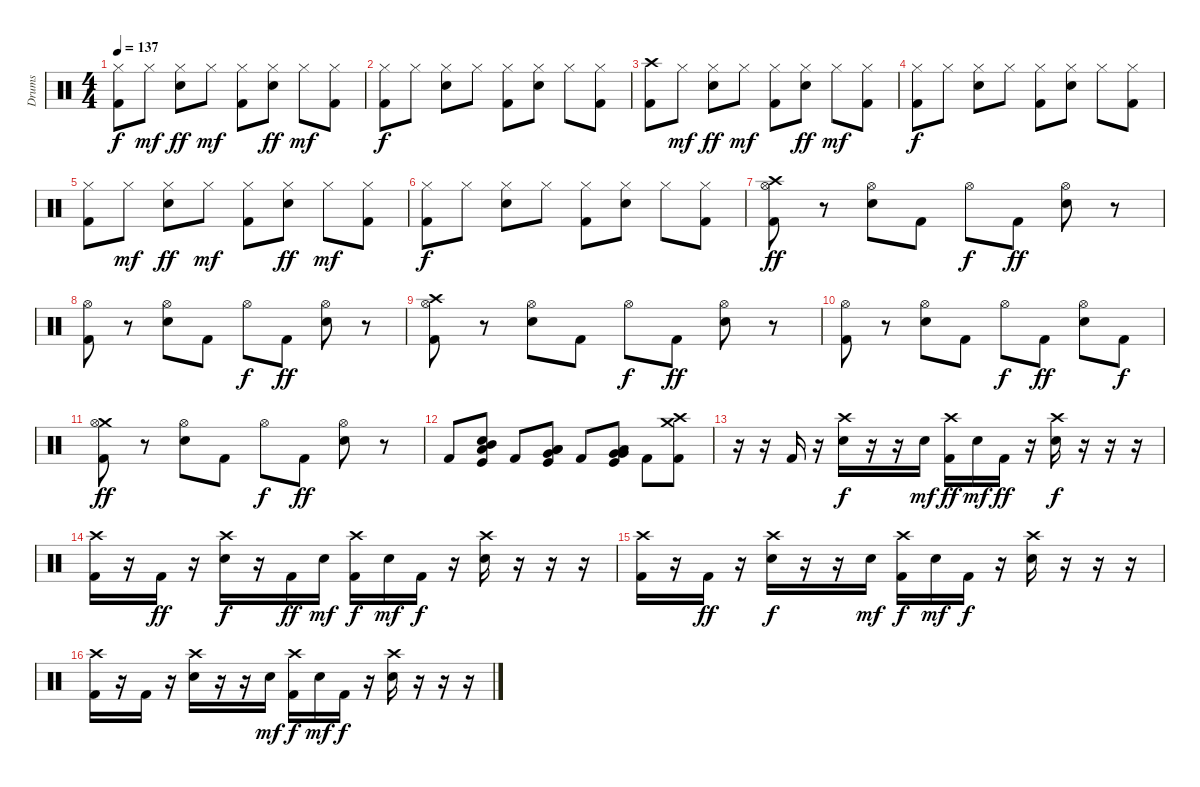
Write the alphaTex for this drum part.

\track ("Drums" "Drums") {instrument percussion}
\staff {score}
\articulation defaults
\ts (4 4)
\tempo 137
\clef neutral
\ks c
("Hi-Hat (closed)" "Kick (hit) 2").8{dy f} "Hi-Hat (closed)".8{dy mf} ("Hi-Hat (closed)" "Electric Snare (hit)").8{dy ff} "Hi-Hat (closed)".8{dy mf} ("Hi-Hat (closed)" "Kick (hit) 2").8 ("Hi-Hat (closed)" "Electric Snare (hit)").8{dy ff} "Hi-Hat (closed)".8{dy mf} ("Hi-Hat (closed)" "Kick (hit) 2").8 |
("Hi-Hat (closed)" "Kick (hit) 2").8{dy f} "Hi-Hat (closed)".8 ("Hi-Hat (closed)" "Electric Snare (hit)").8 "Hi-Hat (closed)".8 ("Hi-Hat (closed)" "Kick (hit) 2").8 ("Hi-Hat (closed)" "Electric Snare (hit)").8 "Hi-Hat (closed)".8 ("Hi-Hat (closed)" "Kick (hit) 2").8 |
("Crash high (hit)" "Kick (hit) 2").8 "Hi-Hat (closed)".8{dy mf} ("Hi-Hat (closed)" "Electric Snare (hit)").8{dy ff} "Hi-Hat (closed)".8{dy mf} ("Hi-Hat (closed)" "Kick (hit) 2").8 ("Hi-Hat (closed)" "Electric Snare (hit)").8{dy ff} "Hi-Hat (closed)".8{dy mf} ("Hi-Hat (closed)" "Kick (hit) 2").8 |
("Hi-Hat (closed)" "Kick (hit) 2").8{dy f} "Hi-Hat (closed)".8 ("Hi-Hat (closed)" "Electric Snare (hit)").8 "Hi-Hat (closed)".8 ("Hi-Hat (closed)" "Kick (hit) 2").8 ("Hi-Hat (closed)" "Electric Snare (hit)").8 "Hi-Hat (closed)".8 ("Hi-Hat (closed)" "Kick (hit) 2").8 |
("Hi-Hat (closed)" "Kick (hit) 2").8 "Hi-Hat (closed)".8{dy mf} ("Hi-Hat (closed)" "Electric Snare (hit)").8{dy ff} "Hi-Hat (closed)".8{dy mf} ("Hi-Hat (closed)" "Kick (hit) 2").8 ("Hi-Hat (closed)" "Electric Snare (hit)").8{dy ff} "Hi-Hat (closed)".8{dy mf} ("Hi-Hat (closed)" "Kick (hit) 2").8 |
("Hi-Hat (closed)" "Kick (hit) 2").8{dy f} "Hi-Hat (closed)".8 ("Hi-Hat (closed)" "Electric Snare (hit)").8 "Hi-Hat (closed)".8 ("Hi-Hat (closed)" "Kick (hit) 2").8 ("Hi-Hat (closed)" "Electric Snare (hit)").8 "Hi-Hat (closed)".8 ("Hi-Hat (closed)" "Kick (hit) 2").8 |
("Crash high (hit)" "Hi-Hat (open)" "Kick (hit) 2").8{dy ff} r.8 ("Hi-Hat (open)" "Electric Snare (hit)").8 "Kick (hit) 2".8 "Hi-Hat (open)".8{dy f} "Kick (hit) 2".8{dy ff} ("Hi-Hat (open)" "Electric Snare (hit)").8 r.8 |
("Hi-Hat (open)" "Kick (hit) 2").8 r.8 ("Hi-Hat (open)" "Electric Snare (hit)").8 "Kick (hit) 2".8 "Hi-Hat (open)".8{dy f} "Kick (hit) 2".8{dy ff} ("Hi-Hat (open)" "Electric Snare (hit)").8 r.8 |
("Crash high (hit)" "Hi-Hat (open)" "Kick (hit) 2").8 r.8 ("Hi-Hat (open)" "Electric Snare (hit)").8 "Kick (hit) 2".8 "Hi-Hat (open)".8{dy f} "Kick (hit) 2".8{dy ff} ("Hi-Hat (open)" "Electric Snare (hit)").8 r.8 |
("Hi-Hat (open)" "Kick (hit) 2").8 r.8 ("Hi-Hat (open)" "Electric Snare (hit)").8 "Kick (hit) 2".8 "Hi-Hat (open)".8{dy f} "Kick (hit) 2".8{dy ff} ("Hi-Hat (open)" "Electric Snare (hit)").8 "Kick (hit) 2".8{dy f} |
("Crash medium (hit)" "Hi-Hat (open)" "Kick (hit) 2").8{dy ff} r.8 ("Hi-Hat (open)" "Electric Snare (hit)").8 "Kick (hit) 2".8 "Hi-Hat (open)".8{dy f} "Kick (hit) 2".8{dy ff} ("Hi-Hat (open)" "Electric Snare (hit)").8 r.8 |
"Kick (hit) 2".8 ("Snare (hit) 2" "Mid Tom (hit)" "Low Tom (hit)" "Kick (hit)").8 "Kick (hit) 2".8 ("Low Tom (hit)" "Low Tom (hit)" "Very Low Tom (hit)" "Kick (hit)").8 "Kick (hit) 2".8 ("Low Tom (hit)" "Very Low Tom (hit)" "Very Low Tom (hit)" "Kick (hit)").8 "Kick (hit) 2".8 ("Crash high (hit)" "Crash medium (hit)" "Kick (hit) 2").8 |
r.16 r.16 "Kick (hit) 2".16 r.16 ("Crash high (hit)" "Electric Snare (hit)").16{dy f} r.16 r.16 "Electric Snare (hit)".16{dy mf} ("Crash high (hit)" "Kick (hit) 2").16{dy ff} "Electric Snare (hit)".16{dy mf} "Kick (hit) 2".16{dy ff} r.16 ("Crash high (hit)" "Electric Snare (hit)").16{dy f} r.16 r.16 r.16 |
("Crash high (hit)" "Kick (hit) 2").16 r.16 "Kick (hit) 2".16{dy ff} r.16 ("Crash high (hit)" "Electric Snare (hit)").16{dy f} r.16 "Kick (hit) 2".16{dy ff} "Electric Snare (hit)".16{dy mf} ("Crash high (hit)" "Kick (hit) 2").16{dy f} "Electric Snare (hit)".16{dy mf} "Kick (hit) 2".16{dy f} r.16 ("Crash high (hit)" "Electric Snare (hit)").16 r.16 r.16 r.16 |
("Crash high (hit)" "Kick (hit) 2").16 r.16 "Kick (hit) 2".16{dy ff} r.16 ("Crash high (hit)" "Electric Snare (hit)").16{dy f} r.16 r.16 "Electric Snare (hit)".16{dy mf} ("Crash high (hit)" "Kick (hit) 2").16{dy f} "Electric Snare (hit)".16{dy mf} "Kick (hit) 2".16{dy f} r.16 ("Crash high (hit)" "Electric Snare (hit)").16 r.16 r.16 r.16 |
("Crash high (hit)" "Kick (hit) 2").16 r.16 "Kick (hit) 2".16 r.16 ("Crash high (hit)" "Electric Snare (hit)").16 r.16 r.16 "Electric Snare (hit)".16{dy mf} ("Crash high (hit)" "Kick (hit) 2").16{dy f} "Electric Snare (hit)".16{dy mf} "Kick (hit) 2".16{dy f} r.16 ("Crash high (hit)" "Electric Snare (hit)").16 r.16 r.16 r.16
